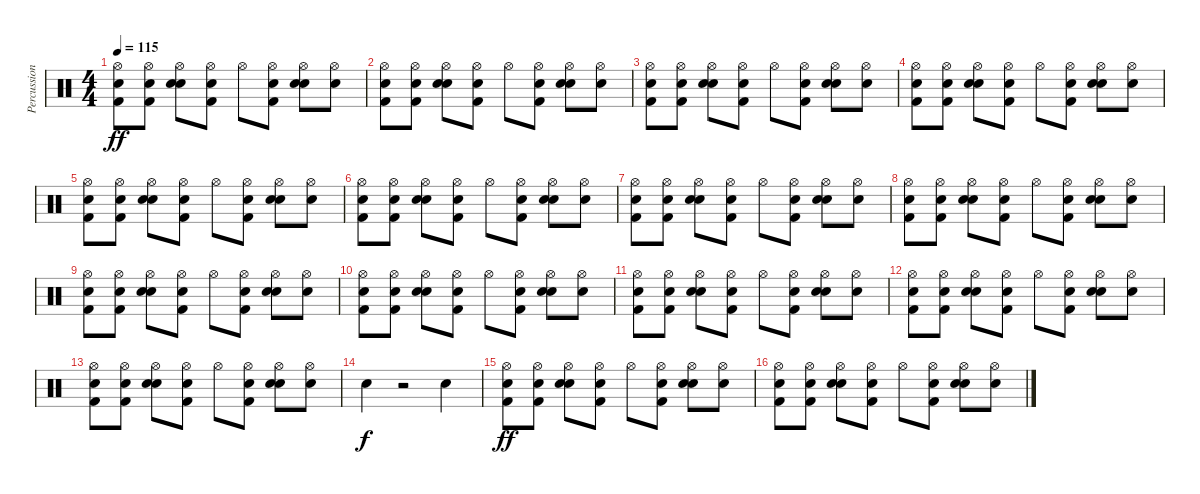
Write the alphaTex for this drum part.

\track ("Percussions / hands" "Percussion") {instrument percussion}
\staff {score}
\articulation defaults
\ts (4 4)
\tempo 115
\clef neutral
\ks c
("Hi-Hat (open)" "Kick (hit) 2" "Hand Clap (hit)").8{dy ff} ("Hi-Hat (open)" "Kick (hit) 2" "Hand Clap (hit)").8 ("Hi-Hat (open)" "Electric Snare (hit)" "Hand Clap (hit)").8 ("Hi-Hat (open)" "Kick (hit) 2" "Hand Clap (hit)").8 "Hi-Hat (open)".8 ("Hi-Hat (open)" "Kick (hit) 2" "Hand Clap (hit)").8 ("Hi-Hat (open)" "Electric Snare (hit)" "Hand Clap (hit)").8 ("Hi-Hat (open)" "Hand Clap (hit)").8 |
("Hi-Hat (open)" "Kick (hit) 2" "Hand Clap (hit)").8 ("Hi-Hat (open)" "Kick (hit) 2" "Hand Clap (hit)").8 ("Hi-Hat (open)" "Electric Snare (hit)" "Hand Clap (hit)").8 ("Hi-Hat (open)" "Kick (hit) 2" "Hand Clap (hit)").8 "Hi-Hat (open)".8 ("Hi-Hat (open)" "Kick (hit) 2" "Hand Clap (hit)").8 ("Hi-Hat (open)" "Electric Snare (hit)" "Hand Clap (hit)").8 ("Hi-Hat (open)" "Hand Clap (hit)").8 |
("Hi-Hat (open)" "Kick (hit) 2" "Hand Clap (hit)").8 ("Hi-Hat (open)" "Kick (hit) 2" "Hand Clap (hit)").8 ("Hi-Hat (open)" "Electric Snare (hit)" "Hand Clap (hit)").8 ("Hi-Hat (open)" "Kick (hit) 2" "Hand Clap (hit)").8 "Hi-Hat (open)".8 ("Hi-Hat (open)" "Kick (hit) 2" "Hand Clap (hit)").8 ("Hi-Hat (open)" "Electric Snare (hit)" "Hand Clap (hit)").8 ("Hi-Hat (open)" "Hand Clap (hit)").8 |
("Hi-Hat (open)" "Kick (hit) 2" "Hand Clap (hit)").8 ("Hi-Hat (open)" "Kick (hit) 2" "Hand Clap (hit)").8 ("Hi-Hat (open)" "Electric Snare (hit)" "Hand Clap (hit)").8 ("Hi-Hat (open)" "Kick (hit) 2" "Hand Clap (hit)").8 "Hi-Hat (open)".8 ("Hi-Hat (open)" "Kick (hit) 2" "Hand Clap (hit)").8 ("Hi-Hat (open)" "Electric Snare (hit)" "Hand Clap (hit)").8 ("Hi-Hat (open)" "Hand Clap (hit)").8 |
("Hi-Hat (open)" "Kick (hit) 2" "Hand Clap (hit)").8 ("Hi-Hat (open)" "Kick (hit) 2" "Hand Clap (hit)").8 ("Hi-Hat (open)" "Electric Snare (hit)" "Hand Clap (hit)").8 ("Hi-Hat (open)" "Kick (hit) 2" "Hand Clap (hit)").8 "Hi-Hat (open)".8 ("Hi-Hat (open)" "Kick (hit) 2" "Hand Clap (hit)").8 ("Hi-Hat (open)" "Electric Snare (hit)" "Hand Clap (hit)").8 ("Hi-Hat (open)" "Hand Clap (hit)").8 |
("Hi-Hat (open)" "Kick (hit) 2" "Hand Clap (hit)").8 ("Hi-Hat (open)" "Kick (hit) 2" "Hand Clap (hit)").8 ("Hi-Hat (open)" "Electric Snare (hit)" "Hand Clap (hit)").8 ("Hi-Hat (open)" "Kick (hit) 2" "Hand Clap (hit)").8 "Hi-Hat (open)".8 ("Hi-Hat (open)" "Kick (hit) 2" "Hand Clap (hit)").8 ("Hi-Hat (open)" "Electric Snare (hit)" "Hand Clap (hit)").8 ("Hi-Hat (open)" "Hand Clap (hit)").8 |
("Hi-Hat (open)" "Kick (hit) 2" "Hand Clap (hit)").8 ("Hi-Hat (open)" "Kick (hit) 2" "Hand Clap (hit)").8 ("Hi-Hat (open)" "Electric Snare (hit)" "Hand Clap (hit)").8 ("Hi-Hat (open)" "Kick (hit) 2" "Hand Clap (hit)").8 "Hi-Hat (open)".8 ("Hi-Hat (open)" "Kick (hit) 2" "Hand Clap (hit)").8 ("Hi-Hat (open)" "Electric Snare (hit)" "Hand Clap (hit)").8 ("Hi-Hat (open)" "Hand Clap (hit)").8 |
("Hi-Hat (open)" "Kick (hit) 2" "Hand Clap (hit)").8 ("Hi-Hat (open)" "Kick (hit) 2" "Hand Clap (hit)").8 ("Hi-Hat (open)" "Electric Snare (hit)" "Hand Clap (hit)").8 ("Hi-Hat (open)" "Kick (hit) 2" "Hand Clap (hit)").8 "Hi-Hat (open)".8 ("Hi-Hat (open)" "Kick (hit) 2" "Hand Clap (hit)").8 ("Hi-Hat (open)" "Electric Snare (hit)" "Hand Clap (hit)").8 ("Hi-Hat (open)" "Hand Clap (hit)").8 |
("Hi-Hat (open)" "Kick (hit) 2" "Hand Clap (hit)").8 ("Hi-Hat (open)" "Kick (hit) 2" "Hand Clap (hit)").8 ("Hi-Hat (open)" "Electric Snare (hit)" "Hand Clap (hit)").8 ("Hi-Hat (open)" "Kick (hit) 2" "Hand Clap (hit)").8 "Hi-Hat (open)".8 ("Hi-Hat (open)" "Kick (hit) 2" "Hand Clap (hit)").8 ("Hi-Hat (open)" "Electric Snare (hit)" "Hand Clap (hit)").8 ("Hi-Hat (open)" "Hand Clap (hit)").8 |
("Hi-Hat (open)" "Kick (hit) 2" "Hand Clap (hit)").8 ("Hi-Hat (open)" "Kick (hit) 2" "Hand Clap (hit)").8 ("Hi-Hat (open)" "Electric Snare (hit)" "Hand Clap (hit)").8 ("Hi-Hat (open)" "Kick (hit) 2" "Hand Clap (hit)").8 "Hi-Hat (open)".8 ("Hi-Hat (open)" "Kick (hit) 2" "Hand Clap (hit)").8 ("Hi-Hat (open)" "Electric Snare (hit)" "Hand Clap (hit)").8 ("Hi-Hat (open)" "Hand Clap (hit)").8 |
("Hi-Hat (open)" "Kick (hit) 2" "Hand Clap (hit)").8 ("Hi-Hat (open)" "Kick (hit) 2" "Hand Clap (hit)").8 ("Hi-Hat (open)" "Electric Snare (hit)" "Hand Clap (hit)").8 ("Hi-Hat (open)" "Kick (hit) 2" "Hand Clap (hit)").8 "Hi-Hat (open)".8 ("Hi-Hat (open)" "Kick (hit) 2" "Hand Clap (hit)").8 ("Hi-Hat (open)" "Electric Snare (hit)" "Hand Clap (hit)").8 ("Hi-Hat (open)" "Hand Clap (hit)").8 |
("Hi-Hat (open)" "Kick (hit) 2" "Hand Clap (hit)").8 ("Hi-Hat (open)" "Kick (hit) 2" "Hand Clap (hit)").8 ("Hi-Hat (open)" "Electric Snare (hit)" "Hand Clap (hit)").8 ("Hi-Hat (open)" "Kick (hit) 2" "Hand Clap (hit)").8 "Hi-Hat (open)".8 ("Hi-Hat (open)" "Kick (hit) 2" "Hand Clap (hit)").8 ("Hi-Hat (open)" "Electric Snare (hit)" "Hand Clap (hit)").8 ("Hi-Hat (open)" "Hand Clap (hit)").8 |
("Hi-Hat (open)" "Kick (hit) 2" "Hand Clap (hit)").8 ("Hi-Hat (open)" "Kick (hit) 2" "Hand Clap (hit)").8 ("Hi-Hat (open)" "Electric Snare (hit)" "Hand Clap (hit)").8 ("Hi-Hat (open)" "Kick (hit) 2" "Hand Clap (hit)").8 "Hi-Hat (open)".8 ("Hi-Hat (open)" "Kick (hit) 2" "Hand Clap (hit)").8 ("Hi-Hat (open)" "Electric Snare (hit)" "Hand Clap (hit)").8 ("Hi-Hat (open)" "Hand Clap (hit)").8 |
"Electric Snare (hit)".4{dy f} r.2 "Electric Snare (hit)".4 |
("Hi-Hat (open)" "Kick (hit) 2" "Hand Clap (hit)").8{dy ff} ("Hi-Hat (open)" "Kick (hit) 2" "Hand Clap (hit)").8 ("Hi-Hat (open)" "Electric Snare (hit)" "Hand Clap (hit)").8 ("Hi-Hat (open)" "Kick (hit) 2" "Hand Clap (hit)").8 "Hi-Hat (open)".8 ("Hi-Hat (open)" "Kick (hit) 2" "Hand Clap (hit)").8 ("Hi-Hat (open)" "Electric Snare (hit)" "Hand Clap (hit)").8 ("Hi-Hat (open)" "Hand Clap (hit)").8 |
("Hi-Hat (open)" "Kick (hit) 2" "Hand Clap (hit)").8 ("Hi-Hat (open)" "Kick (hit) 2" "Hand Clap (hit)").8 ("Hi-Hat (open)" "Electric Snare (hit)" "Hand Clap (hit)").8 ("Hi-Hat (open)" "Kick (hit) 2" "Hand Clap (hit)").8 "Hi-Hat (open)".8 ("Hi-Hat (open)" "Kick (hit) 2" "Hand Clap (hit)").8 ("Hi-Hat (open)" "Electric Snare (hit)" "Hand Clap (hit)").8 ("Hi-Hat (open)" "Hand Clap (hit)").8
